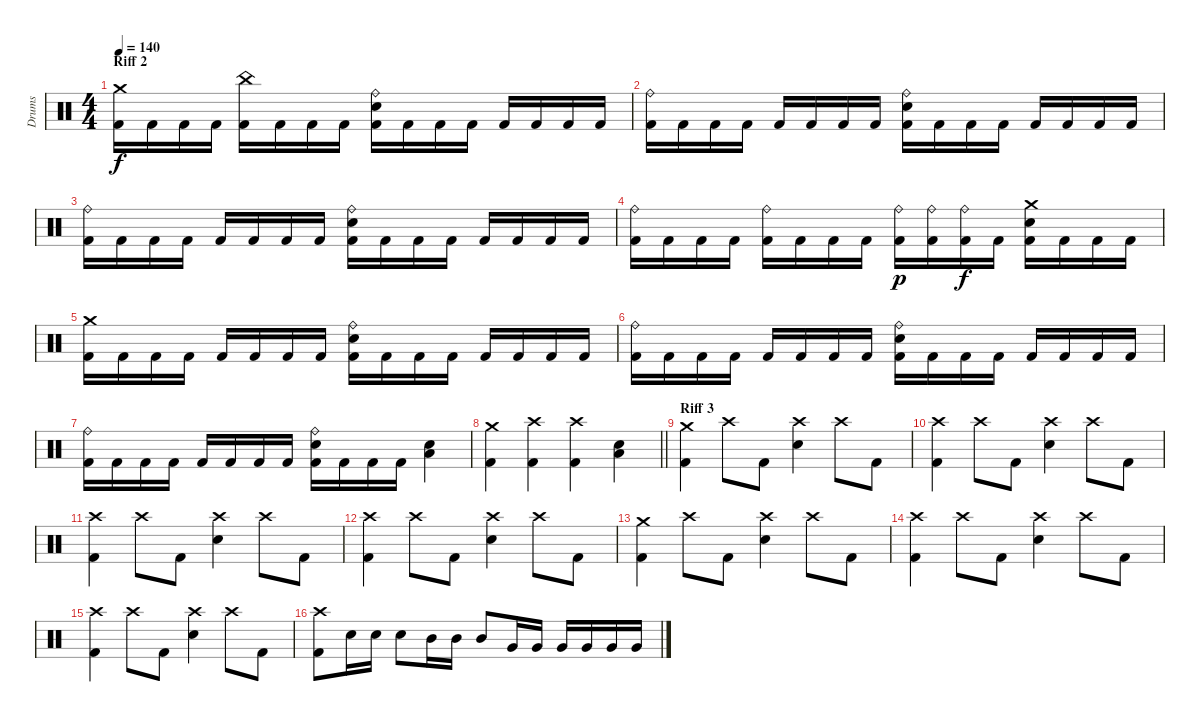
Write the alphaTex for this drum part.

\track ("Drums" "Drums") {instrument percussion}
\staff {score}
\articulation defaults
\ts (4 4)
\section ("" "Riff 2")
\tempo 140
\clef neutral
\ks c
("Crash medium (hit)" "Kick (hit) 2").16{dy f} "Kick (hit) 2".16 "Kick (hit) 2".16 "Kick (hit) 2".16 ("China (hit)" "Kick (hit) 2").16 "Kick (hit) 2".16 "Kick (hit) 2".16 "Kick (hit) 2".16 ("Electric Snare (hit)" "Ride (bell)" "Kick (hit) 2").16 "Kick (hit) 2".16 "Kick (hit) 2".16 "Kick (hit) 2".16 "Kick (hit) 2".16 "Kick (hit) 2".16 "Kick (hit) 2".16 "Kick (hit) 2".16 |
("Ride (bell)" "Kick (hit) 2").16 "Kick (hit) 2".16 "Kick (hit) 2".16 "Kick (hit) 2".16 "Kick (hit) 2".16 "Kick (hit) 2".16 "Kick (hit) 2".16 "Kick (hit) 2".16 ("Electric Snare (hit)" "Ride (bell)" "Kick (hit) 2").16 "Kick (hit) 2".16 "Kick (hit) 2".16 "Kick (hit) 2".16 "Kick (hit) 2".16 "Kick (hit) 2".16 "Kick (hit) 2".16 "Kick (hit) 2".16 |
("Ride (bell)" "Kick (hit) 2").16 "Kick (hit) 2".16 "Kick (hit) 2".16 "Kick (hit) 2".16 "Kick (hit) 2".16 "Kick (hit) 2".16 "Kick (hit) 2".16 "Kick (hit) 2".16 ("Electric Snare (hit)" "Ride (bell)" "Kick (hit) 2").16 "Kick (hit) 2".16 "Kick (hit) 2".16 "Kick (hit) 2".16 "Kick (hit) 2".16 "Kick (hit) 2".16 "Kick (hit) 2".16 "Kick (hit) 2".16 |
("Ride (bell)" "Kick (hit) 2").16 "Kick (hit) 2".16 "Kick (hit) 2".16 "Kick (hit) 2".16 ("Ride (bell)" "Kick (hit) 2").16 "Kick (hit) 2".16 "Kick (hit) 2".16 "Kick (hit) 2".16 ("Ride (bell)" "Kick (hit) 2").16{dy p} ("Ride (bell)" "Kick (hit) 2").16 ("Ride (bell)" "Kick (hit) 2").16{dy f} "Kick (hit) 2".16 ("Kick (hit) 2" "Electric Snare (hit)" "Crash medium (hit)").16 "Kick (hit) 2".16 "Kick (hit) 2".16 "Kick (hit) 2".16 |
("Crash medium (hit)" "Kick (hit) 2").16 "Kick (hit) 2".16 "Kick (hit) 2".16 "Kick (hit) 2".16 "Kick (hit) 2".16 "Kick (hit) 2".16 "Kick (hit) 2".16 "Kick (hit) 2".16 ("Electric Snare (hit)" "Ride (bell)" "Kick (hit) 2").16 "Kick (hit) 2".16 "Kick (hit) 2".16 "Kick (hit) 2".16 "Kick (hit) 2".16 "Kick (hit) 2".16 "Kick (hit) 2".16 "Kick (hit) 2".16 |
("Ride (bell)" "Kick (hit) 2").16 "Kick (hit) 2".16 "Kick (hit) 2".16 "Kick (hit) 2".16 "Kick (hit) 2".16 "Kick (hit) 2".16 "Kick (hit) 2".16 "Kick (hit) 2".16 ("Electric Snare (hit)" "Ride (bell)" "Kick (hit) 2").16 "Kick (hit) 2".16 "Kick (hit) 2".16 "Kick (hit) 2".16 "Kick (hit) 2".16 "Kick (hit) 2".16 "Kick (hit) 2".16 "Kick (hit) 2".16 |
("Ride (bell)" "Kick (hit) 2").16 "Kick (hit) 2".16 "Kick (hit) 2".16 "Kick (hit) 2".16 "Kick (hit) 2".16 "Kick (hit) 2".16 "Kick (hit) 2".16 "Kick (hit) 2".16 ("Electric Snare (hit)" "Ride (bell)" "Kick (hit) 2").16 "Kick (hit) 2".16 "Kick (hit) 2".16 "Kick (hit) 2".16 ("Electric Snare (hit)" "Low Floor Tom (hit)").4 |
\barLineRight lightlight
("Kick (hit) 2" "Crash medium (hit)").4 ("Kick (hit) 2" "Crash high (hit)").4 ("Kick (hit) 2" "Crash high (hit)").4 ("Electric Snare (hit)" "Low Floor Tom (hit)").4 |
\section ("" "Riff 3")
("Crash medium (hit)" "Kick (hit) 2").4 "Crash high (hit)".8 "Kick (hit) 2".8 ("Electric Snare (hit)" "Crash high (hit)").4 "Crash high (hit)".8 "Kick (hit) 2".8 |
("Crash high (hit)" "Kick (hit) 2").4 "Crash high (hit)".8 "Kick (hit) 2".8 ("Electric Snare (hit)" "Crash high (hit)").4 "Crash high (hit)".8 "Kick (hit) 2".8 |
("Crash high (hit)" "Kick (hit) 2").4 "Crash high (hit)".8 "Kick (hit) 2".8 ("Electric Snare (hit)" "Crash high (hit)").4 "Crash high (hit)".8 "Kick (hit) 2".8 |
("Crash high (hit)" "Kick (hit) 2").4 "Crash high (hit)".8 "Kick (hit) 2".8 ("Electric Snare (hit)" "Crash high (hit)").4 "Crash high (hit)".8 "Kick (hit) 2".8 |
("Crash medium (hit)" "Kick (hit) 2").4 "Crash high (hit)".8 "Kick (hit) 2".8 ("Electric Snare (hit)" "Crash high (hit)").4 "Crash high (hit)".8 "Kick (hit) 2".8 |
("Crash high (hit)" "Kick (hit) 2").4 "Crash high (hit)".8 "Kick (hit) 2".8 ("Electric Snare (hit)" "Crash high (hit)").4 "Crash high (hit)".8 "Kick (hit) 2".8 |
("Crash high (hit)" "Kick (hit) 2").4 "Crash high (hit)".8 "Kick (hit) 2".8 ("Electric Snare (hit)" "Crash high (hit)").4 "Crash high (hit)".8 "Kick (hit) 2".8 |
("Crash high (hit)" "Kick (hit) 2").8 "Electric Snare (hit)".16 "Electric Snare (hit)".16 "Electric Snare (hit)".8 "Mid Tom (hit)".16 "Mid Tom (hit)".16 "Mid Tom (hit)".8 "Very Low Tom (hit)".16 "Very Low Tom (hit)".16 "Very Low Tom (hit)".16 "Very Low Tom (hit)".16 "Very Low Tom (hit)".16 "Very Low Tom (hit)".16
